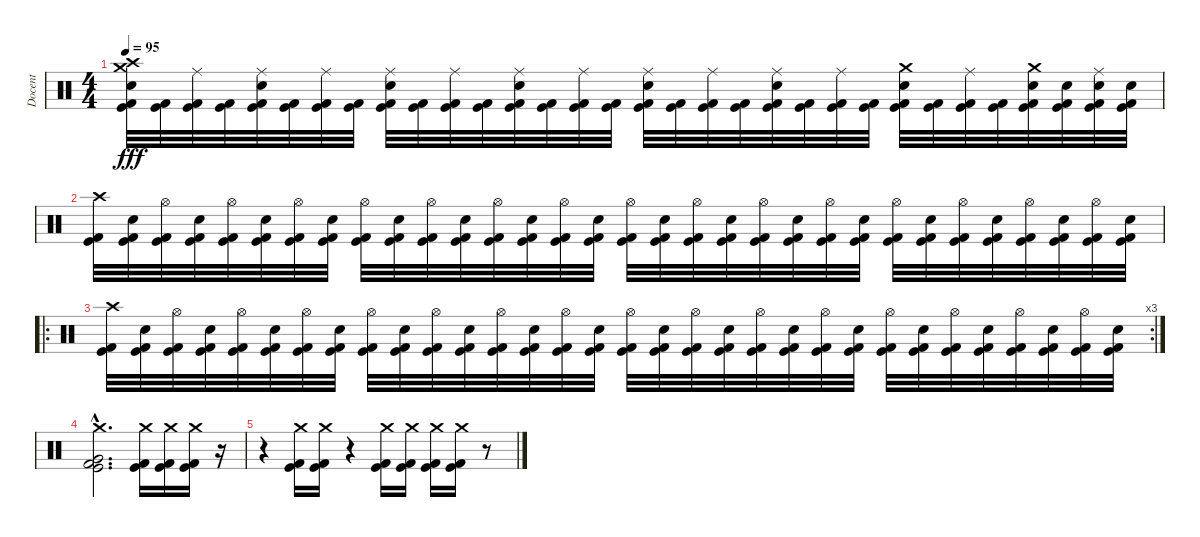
\track ("Docent" "Docent") {instrument percussion}
\staff {score}
\articulation defaults
\ts (4 4)
\tempo 95
\clef neutral
\ks c
("Crash medium (hit)" "Crash high (hit)" "Electric Snare (hit)" "Kick (hit)" "Kick (hit) 2").32{dy fff} ("Kick (hit)" "Kick (hit) 2").32 ("Ride (middle)" "Kick (hit)" "Kick (hit) 2").32 ("Kick (hit)" "Kick (hit) 2").32 ("Ride (middle)" "Electric Snare (hit)" "Kick (hit)" "Kick (hit) 2").32 ("Kick (hit)" "Kick (hit) 2").32 ("Ride (middle)" "Kick (hit)" "Kick (hit) 2").32 ("Kick (hit)" "Kick (hit) 2").32 ("Ride (middle)" "Electric Snare (hit)" "Kick (hit)" "Kick (hit) 2").32 ("Kick (hit)" "Kick (hit) 2").32 ("Ride (middle)" "Kick (hit)" "Kick (hit) 2").32 ("Kick (hit)" "Kick (hit) 2").32 ("Ride (middle)" "Electric Snare (hit)" "Kick (hit)" "Kick (hit) 2").32 ("Kick (hit)" "Kick (hit) 2").32 ("Ride (middle)" "Kick (hit)" "Kick (hit) 2").32 ("Kick (hit)" "Kick (hit) 2").32 ("Ride (middle)" "Electric Snare (hit)" "Kick (hit)" "Kick (hit) 2").32 ("Kick (hit)" "Kick (hit) 2").32 ("Ride (middle)" "Kick (hit)" "Kick (hit) 2").32 ("Kick (hit)" "Kick (hit) 2").32 ("Ride (middle)" "Electric Snare (hit)" "Kick (hit)" "Kick (hit) 2").32 ("Kick (hit)" "Kick (hit) 2").32 ("Ride (middle)" "Kick (hit)" "Kick (hit) 2").32 ("Kick (hit)" "Kick (hit) 2").32 ("Crash medium (hit)" "Electric Snare (hit)" "Kick (hit)" "Kick (hit) 2").32 ("Kick (hit)" "Kick (hit) 2").32 ("Ride (middle)" "Kick (hit)" "Kick (hit) 2").32 ("Kick (hit)" "Kick (hit) 2").32 ("Crash medium (hit)" "Electric Snare (hit)" "Kick (hit)" "Kick (hit) 2").32 ("Electric Snare (hit)" "Kick (hit)" "Kick (hit) 2").32 ("Ride (middle)" "Electric Snare (hit)" "Kick (hit)" "Kick (hit) 2").32 ("Electric Snare (hit)" "Kick (hit)" "Kick (hit) 2").32 |
("Crash high (hit)" "Kick (hit)" "Kick (hit) 2").32 ("Electric Snare (hit)" "Kick (hit)" "Kick (hit) 2").32 ("Hi-Hat (open)" "Kick (hit)" "Kick (hit) 2").32 ("Electric Snare (hit)" "Kick (hit)" "Kick (hit) 2").32 ("Hi-Hat (open)" "Kick (hit)" "Kick (hit) 2").32 ("Electric Snare (hit)" "Kick (hit)" "Kick (hit) 2").32 ("Hi-Hat (open)" "Kick (hit)" "Kick (hit) 2").32 ("Electric Snare (hit)" "Kick (hit)" "Kick (hit) 2").32 ("Hi-Hat (open)" "Kick (hit)" "Kick (hit) 2").32 ("Electric Snare (hit)" "Kick (hit)" "Kick (hit) 2").32 ("Hi-Hat (open)" "Kick (hit)" "Kick (hit) 2").32 ("Electric Snare (hit)" "Kick (hit)" "Kick (hit) 2").32 ("Hi-Hat (open)" "Kick (hit)" "Kick (hit) 2").32 ("Electric Snare (hit)" "Kick (hit)" "Kick (hit) 2").32 ("Hi-Hat (open)" "Kick (hit)" "Kick (hit) 2").32 ("Electric Snare (hit)" "Kick (hit)" "Kick (hit) 2").32 ("Hi-Hat (open)" "Kick (hit)" "Kick (hit) 2").32 ("Electric Snare (hit)" "Kick (hit)" "Kick (hit) 2").32 ("Hi-Hat (open)" "Kick (hit)" "Kick (hit) 2").32 ("Electric Snare (hit)" "Kick (hit)" "Kick (hit) 2").32 ("Hi-Hat (open)" "Kick (hit)" "Kick (hit) 2").32 ("Electric Snare (hit)" "Kick (hit)" "Kick (hit) 2").32 ("Hi-Hat (open)" "Kick (hit)" "Kick (hit) 2").32 ("Electric Snare (hit)" "Kick (hit)" "Kick (hit) 2").32 ("Hi-Hat (open)" "Kick (hit)" "Kick (hit) 2").32 ("Electric Snare (hit)" "Kick (hit)" "Kick (hit) 2").32 ("Hi-Hat (open)" "Kick (hit)" "Kick (hit) 2").32 ("Electric Snare (hit)" "Kick (hit)" "Kick (hit) 2").32 ("Hi-Hat (open)" "Kick (hit)" "Kick (hit) 2").32 ("Electric Snare (hit)" "Kick (hit)" "Kick (hit) 2").32 ("Hi-Hat (open)" "Kick (hit)" "Kick (hit) 2").32 ("Electric Snare (hit)" "Kick (hit)" "Kick (hit) 2").32 |
\ro
\rc 3
("Crash high (hit)" "Kick (hit)" "Kick (hit) 2").32 ("Electric Snare (hit)" "Kick (hit)" "Kick (hit) 2").32 ("Hi-Hat (open)" "Kick (hit)" "Kick (hit) 2").32 ("Electric Snare (hit)" "Kick (hit)" "Kick (hit) 2").32 ("Hi-Hat (open)" "Kick (hit)" "Kick (hit) 2").32 ("Electric Snare (hit)" "Kick (hit)" "Kick (hit) 2").32 ("Hi-Hat (open)" "Kick (hit)" "Kick (hit) 2").32 ("Electric Snare (hit)" "Kick (hit)" "Kick (hit) 2").32 ("Hi-Hat (open)" "Kick (hit)" "Kick (hit) 2").32 ("Electric Snare (hit)" "Kick (hit)" "Kick (hit) 2").32 ("Hi-Hat (open)" "Kick (hit)" "Kick (hit) 2").32 ("Electric Snare (hit)" "Kick (hit)" "Kick (hit) 2").32 ("Hi-Hat (open)" "Kick (hit)" "Kick (hit) 2").32 ("Electric Snare (hit)" "Kick (hit)" "Kick (hit) 2").32 ("Hi-Hat (open)" "Kick (hit)" "Kick (hit) 2").32 ("Electric Snare (hit)" "Kick (hit)" "Kick (hit) 2").32 ("Hi-Hat (open)" "Kick (hit)" "Kick (hit) 2").32 ("Electric Snare (hit)" "Kick (hit)" "Kick (hit) 2").32 ("Hi-Hat (open)" "Kick (hit)" "Kick (hit) 2").32 ("Electric Snare (hit)" "Kick (hit)" "Kick (hit) 2").32 ("Hi-Hat (open)" "Kick (hit)" "Kick (hit) 2").32 ("Electric Snare (hit)" "Kick (hit)" "Kick (hit) 2").32 ("Hi-Hat (open)" "Kick (hit)" "Kick (hit) 2").32 ("Electric Snare (hit)" "Kick (hit)" "Kick (hit) 2").32 ("Hi-Hat (open)" "Kick (hit)" "Kick (hit) 2").32 ("Electric Snare (hit)" "Kick (hit)" "Kick (hit) 2").32 ("Hi-Hat (open)" "Kick (hit)" "Kick (hit) 2").32 ("Electric Snare (hit)" "Kick (hit)" "Kick (hit) 2").32 ("Hi-Hat (open)" "Kick (hit)" "Kick (hit) 2").32 ("Electric Snare (hit)" "Kick (hit)" "Kick (hit) 2").32 ("Hi-Hat (open)" "Kick (hit)" "Kick (hit) 2").32 ("Electric Snare (hit)" "Kick (hit)" "Kick (hit) 2").32 |
("Crash medium (hit)"{hac} "Very Low Tom (hit)"{hac} "Kick (hit) 2"{hac} "Kick (hit)"{hac}).2{d} ("Crash medium (hit)" "Kick (hit)" "Kick (hit) 2").16 ("Crash medium (hit)" "Kick (hit)" "Kick (hit) 2").16 ("Crash medium (hit)" "Kick (hit)" "Kick (hit) 2").16 r.16 |
r.4 ("Kick (hit) 2" "Kick (hit)" "Crash medium (hit)").16 ("Kick (hit) 2" "Kick (hit)" "Crash medium (hit)").16 r.4 ("Crash medium (hit)" "Kick (hit)" "Kick (hit) 2").16 ("Crash medium (hit)" "Kick (hit)" "Kick (hit) 2").16 ("Crash medium (hit)" "Kick (hit)" "Kick (hit) 2").16 ("Crash medium (hit)" "Kick (hit)" "Kick (hit) 2").16 r.8
